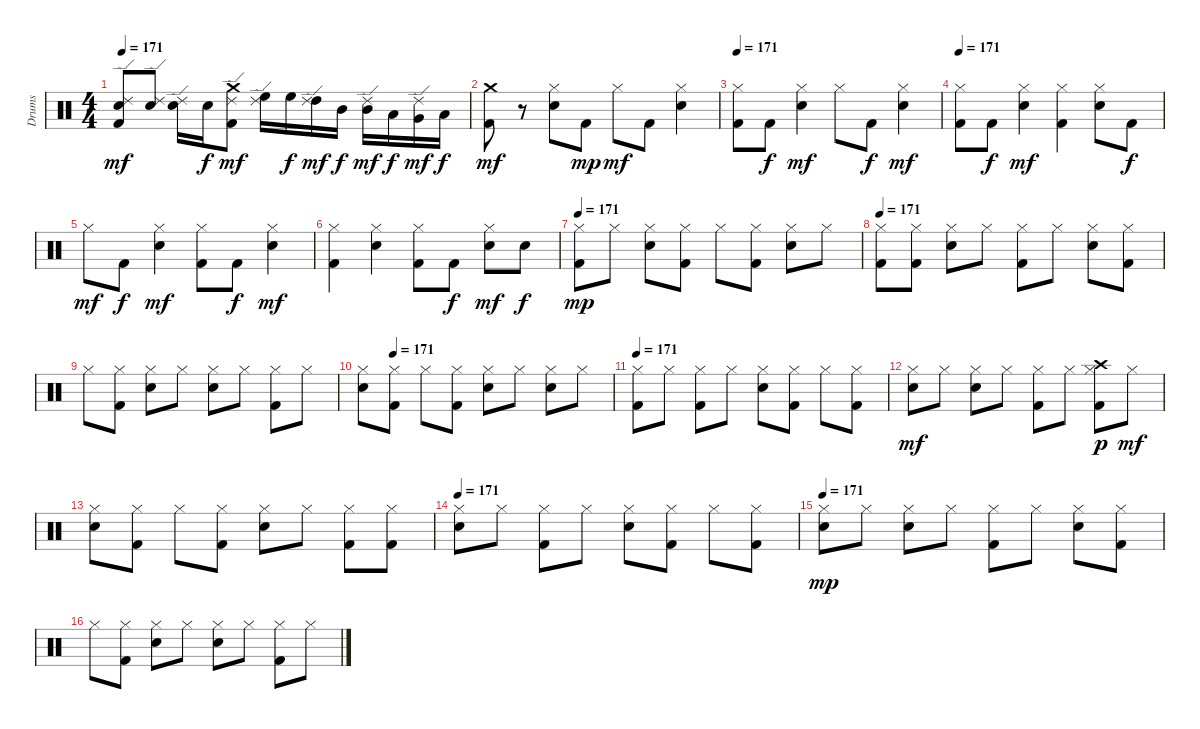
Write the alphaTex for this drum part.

\track ("Drums" "Drums") {instrument percussion}
\staff {score}
\articulation defaults
\ts (4 4)
\tempo 171
\clef neutral
\ks c
("Kick (hit) 2" "Electric Snare (hit)" "Ride (edge) 2").8{dy mf} ("Electric Snare (hit)" "Ride (edge) 2").8 ("Electric Snare (hit)" "Ride (edge) 2").16 "Electric Snare (hit)".16{dy f} ("Kick (hit) 2" "Crash medium (hit)" "Ride (edge) 2").8{dy mf} ("High Floor Tom (hit)" "Ride (edge) 2").16 "High Floor Tom (hit)".16{dy f} ("High Tom (hit)" "Ride (edge) 2").16{dy mf} "Mid Tom (hit)".16{dy f} ("Mid Tom (hit)" "Ride (edge) 2").16{dy mf} "Low Tom (hit)".16{dy f} ("Very Low Tom (hit)" "Ride (edge) 2").16{dy mf} "Low Floor Tom (hit)".16{dy f} |
("Kick (hit) 2" "Crash medium (hit)").8{dy mf} r.8 ("Electric Snare (hit)" "Hi-Hat (closed)").8 "Kick (hit) 2".8{dy mp} "Hi-Hat (closed)".8{dy mf} "Kick (hit) 2".8 ("Electric Snare (hit)" "Hi-Hat (closed)").4 |
\tempo 171
("Kick (hit) 2" "Hi-Hat (closed)").8 "Kick (hit) 2".8{dy f} ("Electric Snare (hit)" "Hi-Hat (closed)").4{dy mf} "Hi-Hat (closed)".8 "Kick (hit) 2".8{dy f} ("Electric Snare (hit)" "Hi-Hat (closed)").4{dy mf} |
\tempo 171
("Kick (hit) 2" "Hi-Hat (closed)").8 "Kick (hit) 2".8{dy f} ("Electric Snare (hit)" "Hi-Hat (closed)").4{dy mf} ("Kick (hit) 2" "Hi-Hat (closed)").4 ("Electric Snare (hit)" "Hi-Hat (closed)").8 "Kick (hit) 2".8{dy f} |
"Hi-Hat (closed)".8{dy mf} "Kick (hit) 2".8{dy f} ("Electric Snare (hit)" "Hi-Hat (closed)").4{dy mf} ("Kick (hit) 2" "Hi-Hat (closed)").8 "Kick (hit) 2".8{dy f} ("Electric Snare (hit)" "Hi-Hat (closed)").4{dy mf} |
("Kick (hit) 2" "Hi-Hat (closed)").4 ("Electric Snare (hit)" "Hi-Hat (closed)").4 ("Kick (hit) 2" "Hi-Hat (closed)").8 "Kick (hit) 2".8{dy f} ("Electric Snare (hit)" "Hi-Hat (closed)").8{dy mf} "Electric Snare (hit)".8{dy f} |
\tempo 171
("Kick (hit) 2" "Hi-Hat (closed)").8{dy mp} "Hi-Hat (closed)".8 ("Electric Snare (hit)" "Hi-Hat (closed)").8 ("Kick (hit) 2" "Hi-Hat (closed)").8 "Hi-Hat (closed)".8 ("Kick (hit) 2" "Hi-Hat (closed)").8 ("Electric Snare (hit)" "Hi-Hat (closed)").8 "Hi-Hat (closed)".8 |
\tempo 171
("Kick (hit) 2" "Hi-Hat (closed)").8 ("Kick (hit) 2" "Hi-Hat (closed)").8 ("Electric Snare (hit)" "Hi-Hat (closed)").8 "Hi-Hat (closed)".8 ("Kick (hit) 2" "Hi-Hat (closed)").8 "Hi-Hat (closed)".8 ("Electric Snare (hit)" "Hi-Hat (closed)").8 ("Kick (hit) 2" "Hi-Hat (closed)").8 |
"Hi-Hat (closed)".8 ("Kick (hit) 2" "Hi-Hat (closed)").8 ("Electric Snare (hit)" "Hi-Hat (closed)").8 "Hi-Hat (closed)".8 ("Electric Snare (hit)" "Hi-Hat (closed)").8 "Hi-Hat (closed)".8 ("Kick (hit) 2" "Hi-Hat (closed)").8 "Hi-Hat (closed)".8 |
\tempo (171 0.125)
("Electric Snare (hit)" "Hi-Hat (closed)").8 ("Kick (hit) 2" "Hi-Hat (closed)").8 "Hi-Hat (closed)".8 ("Kick (hit) 2" "Hi-Hat (closed)").8 ("Electric Snare (hit)" "Hi-Hat (closed)").8 "Hi-Hat (closed)".8 ("Electric Snare (hit)" "Hi-Hat (closed)").8 "Hi-Hat (closed)".8 |
\tempo 171
("Kick (hit) 2" "Hi-Hat (closed)").8 "Hi-Hat (closed)".8 ("Kick (hit) 2" "Hi-Hat (closed)").8 "Hi-Hat (closed)".8 ("Electric Snare (hit)" "Hi-Hat (closed)").8 ("Kick (hit) 2" "Hi-Hat (closed)").8 "Hi-Hat (closed)".8 ("Kick (hit) 2" "Hi-Hat (closed)").8 |
("Electric Snare (hit)" "Hi-Hat (closed)").8{dy mf} "Hi-Hat (closed)".8 ("Electric Snare (hit)" "Hi-Hat (closed)").8 "Hi-Hat (closed)".8 ("Kick (hit) 2" "Hi-Hat (closed)").8 "Hi-Hat (closed)".8 ("Kick (hit) 2" "Hi-Hat (closed)" "Crash high (hit)").8{dy p} "Hi-Hat (closed)".8{dy mf} |
("Electric Snare (hit)" "Hi-Hat (closed)").8 ("Kick (hit) 2" "Hi-Hat (closed)").8 "Hi-Hat (closed)".8 ("Kick (hit) 2" "Hi-Hat (closed)").8 ("Electric Snare (hit)" "Hi-Hat (closed)").8 "Hi-Hat (closed)".8 ("Kick (hit) 2" "Hi-Hat (closed)").8 ("Kick (hit) 2" "Hi-Hat (closed)").8 |
\tempo 171
("Electric Snare (hit)" "Hi-Hat (closed)").8 "Hi-Hat (closed)".8 ("Kick (hit) 2" "Hi-Hat (closed)").8 "Hi-Hat (closed)".8 ("Electric Snare (hit)" "Hi-Hat (closed)").8 ("Kick (hit) 2" "Hi-Hat (closed)").8 "Hi-Hat (closed)".8 ("Kick (hit) 2" "Hi-Hat (closed)").8 |
\tempo 171
("Electric Snare (hit)" "Hi-Hat (closed)").8{dy mp} "Hi-Hat (closed)".8 ("Electric Snare (hit)" "Hi-Hat (closed)").8 "Hi-Hat (closed)".8 ("Kick (hit) 2" "Hi-Hat (closed)").8 "Hi-Hat (closed)".8 ("Electric Snare (hit)" "Hi-Hat (closed)").8 ("Kick (hit) 2" "Hi-Hat (closed)").8 |
"Hi-Hat (closed)".8 ("Kick (hit) 2" "Hi-Hat (closed)").8 ("Electric Snare (hit)" "Hi-Hat (closed)").8 "Hi-Hat (closed)".8 ("Electric Snare (hit)" "Hi-Hat (closed)").8 "Hi-Hat (closed)".8 ("Kick (hit) 2" "Hi-Hat (closed)").8 "Hi-Hat (closed)".8
